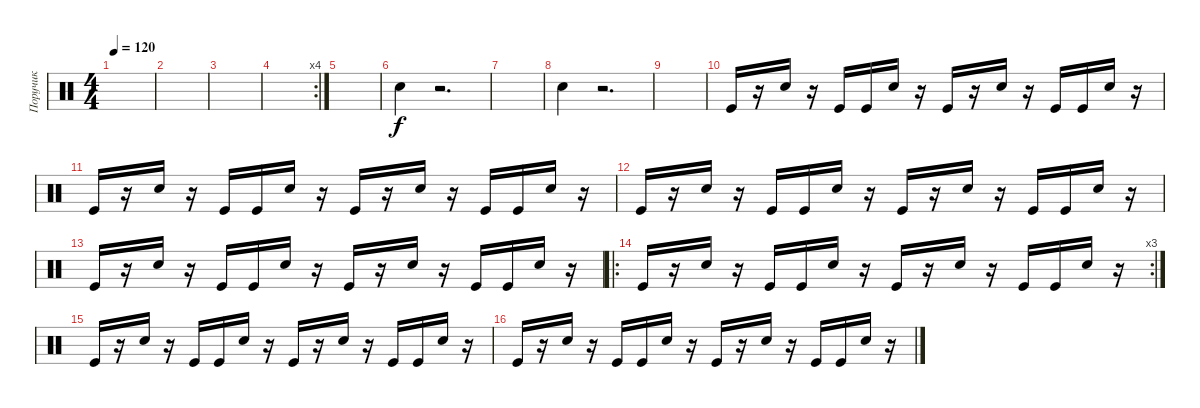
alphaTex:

\track ("Поручик" "Поручик") {instrument percussion}
\staff {score}
\articulation defaults
\ts (4 4)
\tempo 120
\clef neutral
\ks c
|
|
|
\rc 4
|
|
"Electric Snare (hit)".4 r.2{d} |
|
"Electric Snare (hit)".4 r.2{d} |
|
"Kick (hit)".16 r.16 "Snare (hit) 2".16 r.16 "Kick (hit)".16 "Kick (hit)".16 "Snare (hit) 2".16 r.16 "Kick (hit)".16 r.16 "Snare (hit) 2".16 r.16 "Kick (hit)".16 "Kick (hit)".16 "Snare (hit) 2".16 r.16 |
"Kick (hit)".16 r.16 "Snare (hit) 2".16 r.16 "Kick (hit)".16 "Kick (hit)".16 "Snare (hit) 2".16 r.16 "Kick (hit)".16 r.16 "Snare (hit) 2".16 r.16 "Kick (hit)".16 "Kick (hit)".16 "Snare (hit) 2".16 r.16 |
"Kick (hit)".16 r.16 "Snare (hit) 2".16 r.16 "Kick (hit)".16 "Kick (hit)".16 "Snare (hit) 2".16 r.16 "Kick (hit)".16 r.16 "Snare (hit) 2".16 r.16 "Kick (hit)".16 "Kick (hit)".16 "Snare (hit) 2".16 r.16 |
"Kick (hit)".16 r.16 "Snare (hit) 2".16 r.16 "Kick (hit)".16 "Kick (hit)".16 "Snare (hit) 2".16 r.16 "Kick (hit)".16 r.16 "Snare (hit) 2".16 r.16 "Kick (hit)".16 "Kick (hit)".16 "Snare (hit) 2".16 r.16 |
\ro
\rc 3 "Kick (hit)".16
r.16 "Snare (hit) 2".16 r.16 "Kick (hit)".16 "Kick (hit)".16 "Snare (hit) 2".16 r.16 "Kick (hit)".16 r.16 "Snare (hit) 2".16 r.16 "Kick (hit)".16 "Kick (hit)".16 "Snare (hit) 2".16 r.16 |
"Kick (hit)".16 r.16 "Snare (hit) 2".16 r.16 "Kick (hit)".16 "Kick (hit)".16 "Snare (hit) 2".16 r.16 "Kick (hit)".16 r.16 "Snare (hit) 2".16 r.16 "Kick (hit)".16 "Kick (hit)".16 "Snare (hit) 2".16 r.16 |
"Kick (hit)".16 r.16 "Snare (hit) 2".16 r.16 "Kick (hit)".16 "Kick (hit)".16 "Snare (hit) 2".16 r.16 "Kick (hit)".16 r.16 "Snare (hit) 2".16 r.16 "Kick (hit)".16 "Kick (hit)".16 "Snare (hit) 2".16 r.16
